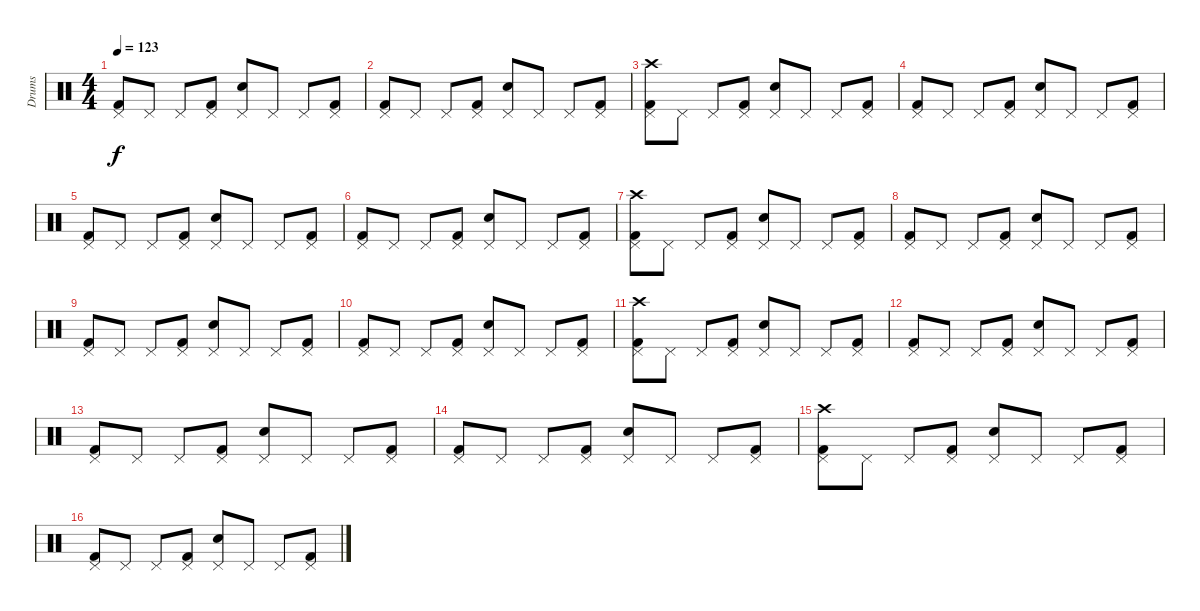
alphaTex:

\track ("Drums" "Drums") {instrument percussion}
\staff {score}
\articulation defaults
\ts (4 4)
\tempo 123
\clef neutral
\ks c
("Kick (hit) 2" "Pedal Hi-Hat (hit)").8{dy f} "Pedal Hi-Hat (hit)".8 "Pedal Hi-Hat (hit)".8 ("Kick (hit) 2" "Pedal Hi-Hat (hit)").8 ("Snare (hit) 2" "Pedal Hi-Hat (hit)").8 "Pedal Hi-Hat (hit)".8 "Pedal Hi-Hat (hit)".8 ("Kick (hit) 2" "Pedal Hi-Hat (hit)").8 |
("Kick (hit) 2" "Pedal Hi-Hat (hit)").8 "Pedal Hi-Hat (hit)".8 "Pedal Hi-Hat (hit)".8 ("Kick (hit) 2" "Pedal Hi-Hat (hit)").8 ("Snare (hit) 2" "Pedal Hi-Hat (hit)").8 "Pedal Hi-Hat (hit)".8 "Pedal Hi-Hat (hit)".8 ("Kick (hit) 2" "Pedal Hi-Hat (hit)").8 |
("Kick (hit) 2" "Pedal Hi-Hat (hit)" "Crash high (hit)").8 "Pedal Hi-Hat (hit)".8 "Pedal Hi-Hat (hit)".8 ("Kick (hit) 2" "Pedal Hi-Hat (hit)").8 ("Snare (hit) 2" "Pedal Hi-Hat (hit)").8 "Pedal Hi-Hat (hit)".8 "Pedal Hi-Hat (hit)".8 ("Kick (hit) 2" "Pedal Hi-Hat (hit)").8 |
("Kick (hit) 2" "Pedal Hi-Hat (hit)").8 "Pedal Hi-Hat (hit)".8 "Pedal Hi-Hat (hit)".8 ("Kick (hit) 2" "Pedal Hi-Hat (hit)").8 ("Snare (hit) 2" "Pedal Hi-Hat (hit)").8 "Pedal Hi-Hat (hit)".8 "Pedal Hi-Hat (hit)".8 ("Kick (hit) 2" "Pedal Hi-Hat (hit)").8 |
("Kick (hit) 2" "Pedal Hi-Hat (hit)").8 "Pedal Hi-Hat (hit)".8 "Pedal Hi-Hat (hit)".8 ("Kick (hit) 2" "Pedal Hi-Hat (hit)").8 ("Snare (hit) 2" "Pedal Hi-Hat (hit)").8 "Pedal Hi-Hat (hit)".8 "Pedal Hi-Hat (hit)".8 ("Kick (hit) 2" "Pedal Hi-Hat (hit)").8 |
("Kick (hit) 2" "Pedal Hi-Hat (hit)").8 "Pedal Hi-Hat (hit)".8 "Pedal Hi-Hat (hit)".8 ("Kick (hit) 2" "Pedal Hi-Hat (hit)").8 ("Snare (hit) 2" "Pedal Hi-Hat (hit)").8 "Pedal Hi-Hat (hit)".8 "Pedal Hi-Hat (hit)".8 ("Kick (hit) 2" "Pedal Hi-Hat (hit)").8 |
("Kick (hit) 2" "Pedal Hi-Hat (hit)" "Crash high (hit)").8 "Pedal Hi-Hat (hit)".8 "Pedal Hi-Hat (hit)".8 ("Kick (hit) 2" "Pedal Hi-Hat (hit)").8 ("Snare (hit) 2" "Pedal Hi-Hat (hit)").8 "Pedal Hi-Hat (hit)".8 "Pedal Hi-Hat (hit)".8 ("Kick (hit) 2" "Pedal Hi-Hat (hit)").8 |
("Kick (hit) 2" "Pedal Hi-Hat (hit)").8 "Pedal Hi-Hat (hit)".8 "Pedal Hi-Hat (hit)".8 ("Kick (hit) 2" "Pedal Hi-Hat (hit)").8 ("Snare (hit) 2" "Pedal Hi-Hat (hit)").8 "Pedal Hi-Hat (hit)".8 "Pedal Hi-Hat (hit)".8 ("Kick (hit) 2" "Pedal Hi-Hat (hit)").8 |
("Kick (hit) 2" "Pedal Hi-Hat (hit)").8 "Pedal Hi-Hat (hit)".8 "Pedal Hi-Hat (hit)".8 ("Kick (hit) 2" "Pedal Hi-Hat (hit)").8 ("Snare (hit) 2" "Pedal Hi-Hat (hit)").8 "Pedal Hi-Hat (hit)".8 "Pedal Hi-Hat (hit)".8 ("Kick (hit) 2" "Pedal Hi-Hat (hit)").8 |
("Kick (hit) 2" "Pedal Hi-Hat (hit)").8 "Pedal Hi-Hat (hit)".8 "Pedal Hi-Hat (hit)".8 ("Kick (hit) 2" "Pedal Hi-Hat (hit)").8 ("Snare (hit) 2" "Pedal Hi-Hat (hit)").8 "Pedal Hi-Hat (hit)".8 "Pedal Hi-Hat (hit)".8 ("Kick (hit) 2" "Pedal Hi-Hat (hit)").8 |
("Kick (hit) 2" "Pedal Hi-Hat (hit)" "Crash high (hit)").8 "Pedal Hi-Hat (hit)".8 "Pedal Hi-Hat (hit)".8 ("Kick (hit) 2" "Pedal Hi-Hat (hit)").8 ("Snare (hit) 2" "Pedal Hi-Hat (hit)").8 "Pedal Hi-Hat (hit)".8 "Pedal Hi-Hat (hit)".8 ("Kick (hit) 2" "Pedal Hi-Hat (hit)").8 |
("Kick (hit) 2" "Pedal Hi-Hat (hit)").8 "Pedal Hi-Hat (hit)".8 "Pedal Hi-Hat (hit)".8 ("Kick (hit) 2" "Pedal Hi-Hat (hit)").8 ("Snare (hit) 2" "Pedal Hi-Hat (hit)").8 "Pedal Hi-Hat (hit)".8 "Pedal Hi-Hat (hit)".8 ("Kick (hit) 2" "Pedal Hi-Hat (hit)").8 |
("Kick (hit) 2" "Pedal Hi-Hat (hit)").8 "Pedal Hi-Hat (hit)".8 "Pedal Hi-Hat (hit)".8 ("Kick (hit) 2" "Pedal Hi-Hat (hit)").8 ("Snare (hit) 2" "Pedal Hi-Hat (hit)").8 "Pedal Hi-Hat (hit)".8 "Pedal Hi-Hat (hit)".8 ("Kick (hit) 2" "Pedal Hi-Hat (hit)").8 |
("Kick (hit) 2" "Pedal Hi-Hat (hit)").8 "Pedal Hi-Hat (hit)".8 "Pedal Hi-Hat (hit)".8 ("Kick (hit) 2" "Pedal Hi-Hat (hit)").8 ("Snare (hit) 2" "Pedal Hi-Hat (hit)").8 "Pedal Hi-Hat (hit)".8 "Pedal Hi-Hat (hit)".8 ("Kick (hit) 2" "Pedal Hi-Hat (hit)").8 |
("Kick (hit) 2" "Pedal Hi-Hat (hit)" "Crash high (hit)").8 "Pedal Hi-Hat (hit)".8 "Pedal Hi-Hat (hit)".8 ("Kick (hit) 2" "Pedal Hi-Hat (hit)").8 ("Snare (hit) 2" "Pedal Hi-Hat (hit)").8 "Pedal Hi-Hat (hit)".8 "Pedal Hi-Hat (hit)".8 ("Kick (hit) 2" "Pedal Hi-Hat (hit)").8 |
("Kick (hit) 2" "Pedal Hi-Hat (hit)").8 "Pedal Hi-Hat (hit)".8 "Pedal Hi-Hat (hit)".8 ("Kick (hit) 2" "Pedal Hi-Hat (hit)").8 ("Snare (hit) 2" "Pedal Hi-Hat (hit)").8 "Pedal Hi-Hat (hit)".8 "Pedal Hi-Hat (hit)".8 ("Kick (hit) 2" "Pedal Hi-Hat (hit)").8
